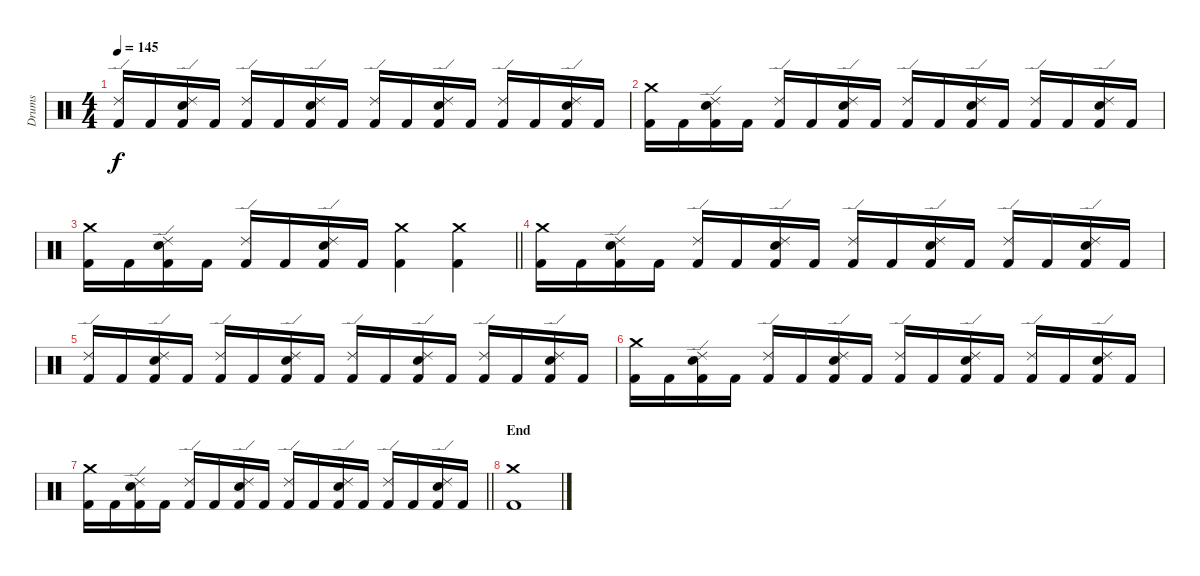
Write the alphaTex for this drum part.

\track ("Drums" "Drums") {instrument percussion}
\staff {score}
\articulation defaults
\ts (4 4)
\tempo 145
\clef neutral
\ks c
("Kick (hit) 2" "Ride (edge) 2").16{dy f} "Kick (hit) 2".16 ("Kick (hit) 2" "Snare (hit) 2" "Ride (edge) 2").16 "Kick (hit) 2".16 ("Kick (hit) 2" "Ride (edge) 2").16 "Kick (hit) 2".16 ("Kick (hit) 2" "Snare (hit) 2" "Ride (edge) 2").16 "Kick (hit) 2".16 ("Kick (hit) 2" "Ride (edge) 2").16 "Kick (hit) 2".16 ("Kick (hit) 2" "Snare (hit) 2" "Ride (edge) 2").16 "Kick (hit) 2".16 ("Kick (hit) 2" "Ride (edge) 2").16 "Kick (hit) 2".16 ("Kick (hit) 2" "Snare (hit) 2" "Ride (edge) 2").16 "Kick (hit) 2".16 |
("Kick (hit) 2" "Crash medium (hit)").16 "Kick (hit) 2".16 ("Kick (hit) 2" "Snare (hit) 2" "Ride (edge) 2").16 "Kick (hit) 2".16 ("Kick (hit) 2" "Ride (edge) 2").16 "Kick (hit) 2".16 ("Kick (hit) 2" "Snare (hit) 2" "Ride (edge) 2").16 "Kick (hit) 2".16 ("Kick (hit) 2" "Ride (edge) 2").16 "Kick (hit) 2".16 ("Kick (hit) 2" "Snare (hit) 2" "Ride (edge) 2").16 "Kick (hit) 2".16 ("Kick (hit) 2" "Ride (edge) 2").16 "Kick (hit) 2".16 ("Kick (hit) 2" "Snare (hit) 2" "Ride (edge) 2").16 "Kick (hit) 2".16 |
\barLineRight lightlight
("Kick (hit) 2" "Crash medium (hit)").16 "Kick (hit) 2".16 ("Kick (hit) 2" "Snare (hit) 2" "Ride (edge) 2").16 "Kick (hit) 2".16 ("Kick (hit) 2" "Ride (edge) 2").16 "Kick (hit) 2".16 ("Kick (hit) 2" "Snare (hit) 2" "Ride (edge) 2").16 "Kick (hit) 2".16 ("Kick (hit) 2" "Crash medium (hit)").4 ("Kick (hit) 2" "Crash medium (hit)").4 |
\section ("" "")
("Kick (hit) 2" "Crash medium (hit)").16 "Kick (hit) 2".16 ("Kick (hit) 2" "Snare (hit) 2" "Ride (edge) 2").16 "Kick (hit) 2".16 ("Kick (hit) 2" "Ride (edge) 2").16 "Kick (hit) 2".16 ("Kick (hit) 2" "Snare (hit) 2" "Ride (edge) 2").16 "Kick (hit) 2".16 ("Kick (hit) 2" "Ride (edge) 2").16 "Kick (hit) 2".16 ("Kick (hit) 2" "Snare (hit) 2" "Ride (edge) 2").16 "Kick (hit) 2".16 ("Kick (hit) 2" "Ride (edge) 2").16 "Kick (hit) 2".16 ("Kick (hit) 2" "Snare (hit) 2" "Ride (edge) 2").16 "Kick (hit) 2".16 |
("Kick (hit) 2" "Ride (edge) 2").16 "Kick (hit) 2".16 ("Kick (hit) 2" "Snare (hit) 2" "Ride (edge) 2").16 "Kick (hit) 2".16 ("Kick (hit) 2" "Ride (edge) 2").16 "Kick (hit) 2".16 ("Kick (hit) 2" "Snare (hit) 2" "Ride (edge) 2").16 "Kick (hit) 2".16 ("Kick (hit) 2" "Ride (edge) 2").16 "Kick (hit) 2".16 ("Kick (hit) 2" "Snare (hit) 2" "Ride (edge) 2").16 "Kick (hit) 2".16 ("Kick (hit) 2" "Ride (edge) 2").16 "Kick (hit) 2".16 ("Kick (hit) 2" "Snare (hit) 2" "Ride (edge) 2").16 "Kick (hit) 2".16 |
("Kick (hit) 2" "Crash medium (hit)").16 "Kick (hit) 2".16 ("Kick (hit) 2" "Snare (hit) 2" "Ride (edge) 2").16 "Kick (hit) 2".16 ("Kick (hit) 2" "Ride (edge) 2").16 "Kick (hit) 2".16 ("Kick (hit) 2" "Snare (hit) 2" "Ride (edge) 2").16 "Kick (hit) 2".16 ("Kick (hit) 2" "Ride (edge) 2").16 "Kick (hit) 2".16 ("Kick (hit) 2" "Snare (hit) 2" "Ride (edge) 2").16 "Kick (hit) 2".16 ("Kick (hit) 2" "Ride (edge) 2").16 "Kick (hit) 2".16 ("Kick (hit) 2" "Snare (hit) 2" "Ride (edge) 2").16 "Kick (hit) 2".16 |
\barLineRight lightlight
("Kick (hit) 2" "Crash medium (hit)").16 "Kick (hit) 2".16 ("Kick (hit) 2" "Snare (hit) 2" "Ride (edge) 2").16 "Kick (hit) 2".16 ("Kick (hit) 2" "Ride (edge) 2").16 "Kick (hit) 2".16 ("Kick (hit) 2" "Snare (hit) 2" "Ride (edge) 2").16 "Kick (hit) 2".16 ("Kick (hit) 2" "Ride (edge) 2").16 "Kick (hit) 2".16 ("Kick (hit) 2" "Snare (hit) 2" "Ride (edge) 2").16 "Kick (hit) 2".16 ("Kick (hit) 2" "Ride (edge) 2").16 "Kick (hit) 2".16 ("Kick (hit) 2" "Snare (hit) 2" "Ride (edge) 2").16 "Kick (hit) 2".16 |
\section ("" "End")
("Kick (hit) 2" "Crash medium (hit)").1
